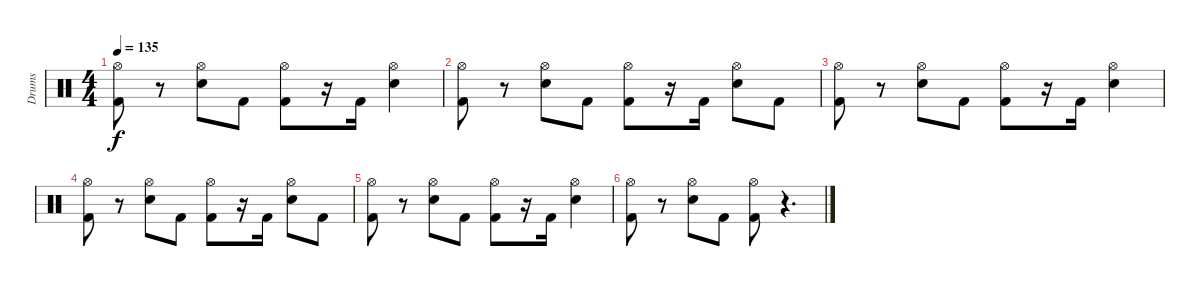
\track ("Drums" "Drums") {instrument percussion}
\staff {score}
\articulation defaults
\ts (4 4)
\tempo 135
\clef neutral
\ks c
("Hi-Hat (open)" "Kick (hit) 2").8{dy f} r.8 ("Hi-Hat (open)" "Snare (hit) 2").8 "Kick (hit) 2".8 ("Hi-Hat (open)" "Kick (hit) 2").8 r.16 "Kick (hit) 2".16 ("Hi-Hat (open)" "Snare (hit) 2").4 |
("Hi-Hat (open)" "Kick (hit) 2").8 r.8 ("Hi-Hat (open)" "Snare (hit) 2").8 "Kick (hit) 2".8 ("Hi-Hat (open)" "Kick (hit) 2").8 r.16 "Kick (hit) 2".16 ("Hi-Hat (open)" "Snare (hit) 2").8 "Kick (hit) 2".8 |
("Hi-Hat (open)" "Kick (hit) 2").8 r.8 ("Hi-Hat (open)" "Snare (hit) 2").8 "Kick (hit) 2".8 ("Hi-Hat (open)" "Kick (hit) 2").8 r.16 "Kick (hit) 2".16 ("Hi-Hat (open)" "Snare (hit) 2").4 |
("Hi-Hat (open)" "Kick (hit) 2").8 r.8 ("Hi-Hat (open)" "Snare (hit) 2").8 "Kick (hit) 2".8 ("Hi-Hat (open)" "Kick (hit) 2").8 r.16 "Kick (hit) 2".16 ("Hi-Hat (open)" "Snare (hit) 2").8 "Kick (hit) 2".8 |
("Hi-Hat (open)" "Kick (hit) 2").8 r.8 ("Hi-Hat (open)" "Snare (hit) 2").8 "Kick (hit) 2".8 ("Hi-Hat (open)" "Kick (hit) 2").8 r.16 "Kick (hit) 2".16 ("Hi-Hat (open)" "Snare (hit) 2").4 |
("Hi-Hat (open)" "Kick (hit) 2").8 r.8 ("Hi-Hat (open)" "Snare (hit) 2").8 "Kick (hit) 2".8 ("Hi-Hat (open)" "Kick (hit) 2").8 r.4{d}
